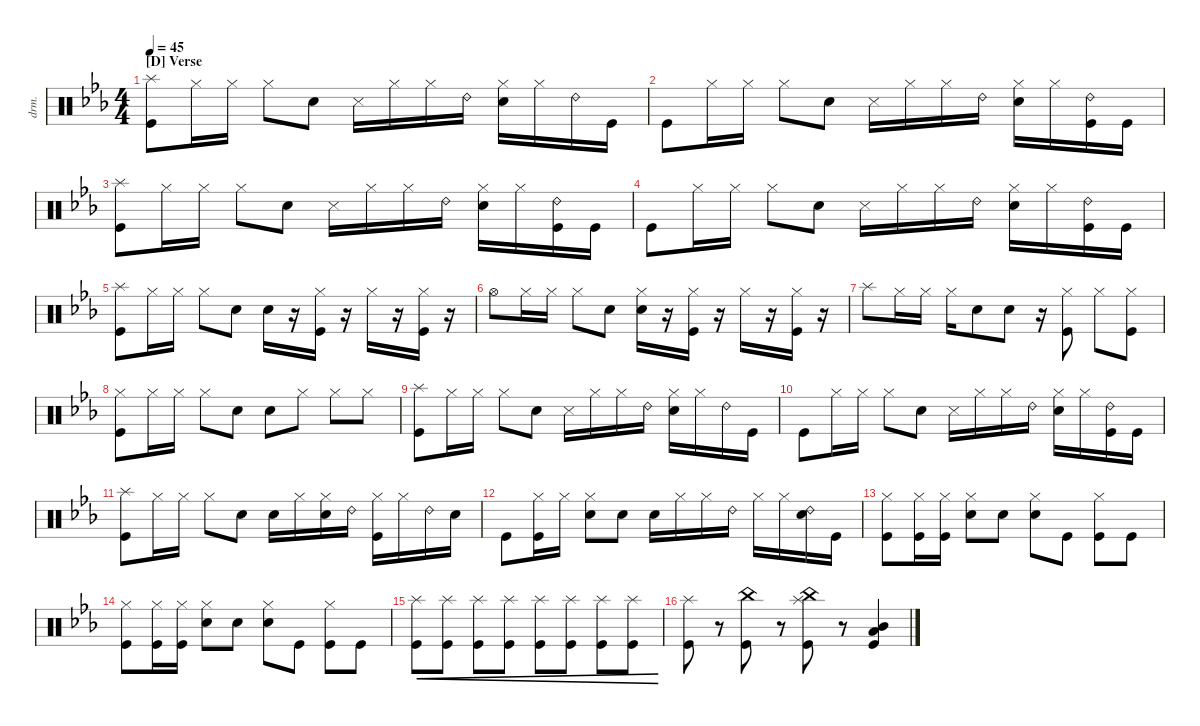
\defaultSystemsLayout 4
\hideDynamics
\bracketExtendMode nobrackets
\otherSystemsTrackNameOrientation horizontal
\track ("Drumkit" "drm.") {instrument percussion}
\staff {score}
\articulation defaults
\ts (4 4)
\section ("D" "Verse")
\tempo 45
\clef neutral
\ks cminor
("Kick (hit)" "Splash (hit)").8{dy mf} "Hi-Hat (closed)".16 "Hi-Hat (closed)".16 "Hi-Hat (closed)".8 "Snare (hit) 2".8 "Snare (side stick) 3".16 "Hi-Hat (closed)".16 "Hi-Hat (closed)".16 "Ride (bell) 2".16 ("Hi-Hat (closed)" "Snare (hit) 2").16 "Hi-Hat (closed)".16 "Ride (bell) 2".16 "Kick (hit)".16 |
"Kick (hit)".8 "Hi-Hat (closed)".16 "Hi-Hat (closed)".16 "Hi-Hat (closed)".8 "Snare (hit) 2".8 "Snare (side stick) 3".16 "Hi-Hat (closed)".16 "Hi-Hat (closed)".16 "Ride (bell) 2".16 ("Hi-Hat (closed)" "Snare (hit) 2").16 "Hi-Hat (closed)".16 ("Ride (bell) 2" "Kick (hit)").16 "Kick (hit)".16 |
("Kick (hit)" "Splash (hit)").8 "Hi-Hat (closed)".16 "Hi-Hat (closed)".16 "Hi-Hat (closed)".8 "Snare (hit) 2".8 "Snare (side stick) 3".16 "Hi-Hat (closed)".16 "Hi-Hat (closed)".16 "Ride (bell) 2".16 ("Hi-Hat (closed)" "Snare (hit) 2").16 "Hi-Hat (closed)".16 ("Ride (bell) 2" "Kick (hit)").16 "Kick (hit)".16 |
"Kick (hit)".8 "Hi-Hat (closed)".16 "Hi-Hat (closed)".16 "Hi-Hat (closed)".8 "Snare (hit) 2".8 "Snare (side stick) 3".16 "Hi-Hat (closed)".16 "Hi-Hat (closed)".16 "Ride (bell) 2".16 ("Hi-Hat (closed)" "Snare (hit) 2").16 "Hi-Hat (closed)".16 ("Ride (bell) 2" "Kick (hit)").16 "Kick (hit)".16 |
("Kick (hit)" "Splash (hit)").8 "Hi-Hat (closed)".16 "Hi-Hat (closed)".16 "Hi-Hat (closed)".8 "Snare (hit) 2".8 "Snare (hit) 2".16 r.16 ("Hi-Hat (closed)" "Kick (hit)").16 r.16 "Hi-Hat (closed)".16 r.16 ("Kick (hit)" "Hi-Hat (closed)").16 r.16 |
"Hi-Hat (open)".8 "Hi-Hat (closed)".16 "Hi-Hat (closed)".16 "Hi-Hat (closed)".8 "Snare (hit) 2".8 ("Snare (hit) 2" "Hi-Hat (closed)").16 r.16 ("Kick (hit)" "Hi-Hat (closed)").16 r.16 "Hi-Hat (closed)".16 r.16 ("Kick (hit)" "Hi-Hat (closed)").16 r.16 |
"Splash (hit)".8 "Hi-Hat (closed)".16 "Hi-Hat (closed)".16 "Hi-Hat (closed)".16 "Snare (hit) 2".8 "Snare (hit) 2".8 r.16 ("Hi-Hat (closed)" "Kick (hit)").8 "Hi-Hat (closed)".8 ("Kick (hit)" "Hi-Hat (closed)").8 |
("Kick (hit)" "Hi-Hat (closed)").8 "Hi-Hat (closed)".16 "Hi-Hat (closed)".16 "Hi-Hat (closed)".8 "Snare (hit) 2".8 "Snare (hit) 2".8 "Hi-Hat (closed)".8 "Hi-Hat (closed)".8 "Hi-Hat (closed)".8 |
("Kick (hit)" "Splash (hit)").8 "Hi-Hat (closed)".16 "Hi-Hat (closed)".16 "Hi-Hat (closed)".8 "Snare (hit) 2".8 "Snare (side stick) 3".16 "Hi-Hat (closed)".16 "Hi-Hat (closed)".16 "Ride (bell) 2".16 ("Hi-Hat (closed)" "Snare (hit) 2").16 "Hi-Hat (closed)".16 "Ride (bell) 2".16 "Kick (hit)".16 |
"Kick (hit)".8 "Hi-Hat (closed)".16 "Hi-Hat (closed)".16 "Hi-Hat (closed)".8 "Snare (hit) 2".8 "Snare (side stick) 3".16 "Hi-Hat (closed)".16 "Hi-Hat (closed)".16 "Ride (bell) 2".16 ("Hi-Hat (closed)" "Snare (hit) 2").16 "Hi-Hat (closed)".16 ("Ride (bell) 2" "Kick (hit)").16 "Kick (hit)".16 |
("Kick (hit)" "Splash (hit)").8 "Hi-Hat (closed)".16 "Hi-Hat (closed)".16 "Hi-Hat (closed)".8 "Snare (hit) 2".8 "Snare (hit) 2".16 "Hi-Hat (closed)".16 ("Hi-Hat (closed)" "Snare (hit) 2").16 "Ride (bell) 2".16 ("Hi-Hat (closed)" "Kick (hit)").16 "Hi-Hat (closed)".16 "Ride (bell) 2".16 "Snare (hit) 2".16 |
"Kick (hit)".8 ("Hi-Hat (closed)" "Kick (hit)").16 "Hi-Hat (closed)".16 ("Hi-Hat (closed)" "Snare (hit) 2").8 "Snare (hit) 2".8 "Snare (hit) 2".16 "Hi-Hat (closed)".16 "Hi-Hat (closed)".16 "Ride (bell) 2".16 "Hi-Hat (closed)".16 "Hi-Hat (closed)".16 ("Ride (bell) 2" "Snare (hit) 2").16 "Kick (hit)".16 |
("Kick (hit)" "Hi-Hat (closed)").8 ("Hi-Hat (closed)" "Kick (hit)").16 ("Hi-Hat (closed)" "Kick (hit)").16 ("Hi-Hat (closed)" "Snare (hit) 2").8 "Snare (hit) 2".8 ("Snare (hit) 2" "Hi-Hat (closed)").8 "Kick (hit)".8 ("Hi-Hat (closed)" "Kick (hit)").8 "Kick (hit)".8 |
("Kick (hit)" "Hi-Hat (closed)").8 ("Hi-Hat (closed)" "Kick (hit)").16 ("Hi-Hat (closed)" "Kick (hit)").16 ("Hi-Hat (closed)" "Snare (hit) 2").8 "Snare (hit) 2".8 ("Snare (hit) 2" "Hi-Hat (closed)").8 "Kick (hit)".8 ("Hi-Hat (closed)" "Kick (hit)").8 "Kick (hit)".8 |
("Kick (hit)" "Splash (hit)").8{cre dy p} ("Kick (hit)" "Splash (hit)").8{cre} ("Kick (hit)" "Splash (hit)").8{cre} ("Kick (hit)" "Splash (hit)").8{cre} ("Kick (hit)" "Splash (hit)").8{cre dy mp} ("Kick (hit)" "Splash (hit)").8{cre} ("Kick (hit)" "Splash (hit)").8{cre dy mf} ("Kick (hit)" "Splash (hit)").8{cre} |
("Splash (hit)" "Kick (hit)").8 r.8 ("Kick (hit)" "China (hit)").8 r.8 ("China (hit)" "Splash (hit)" "Kick (hit)").8 r.8 ("Low Tom (hit)" "Mid Tom (hit)" "Kick (hit)").4{dy ff}
